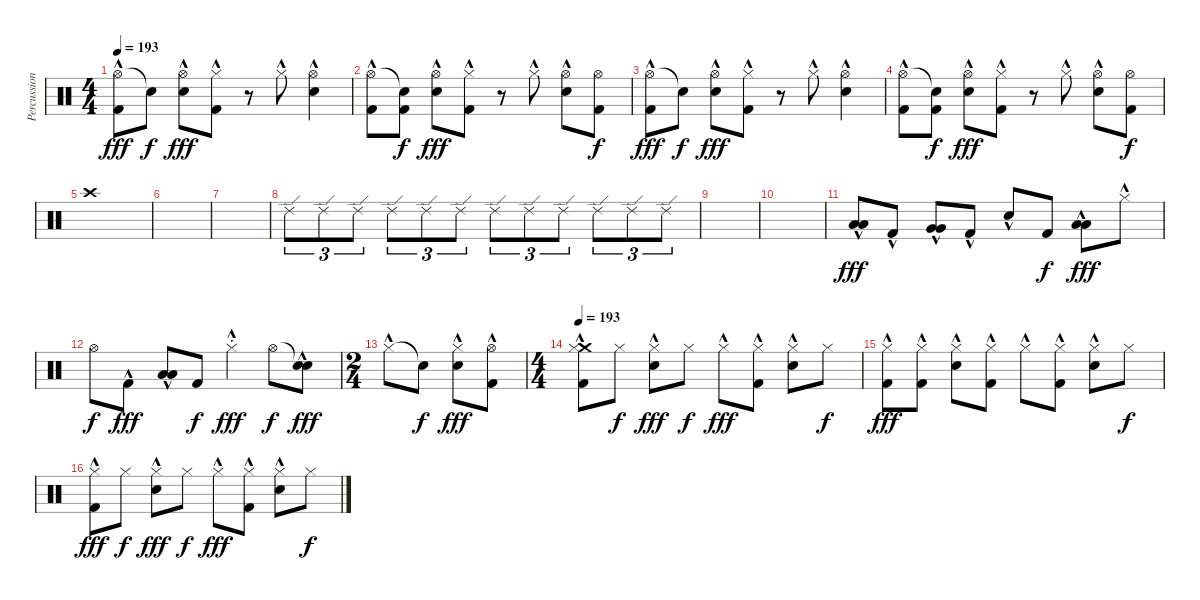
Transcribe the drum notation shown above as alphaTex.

\track ("Percussion" "Percussion") {instrument percussion}
\staff {score}
\articulation defaults
\ts (4 4)
\tempo 193
\clef neutral
\ks c
("Hi-Hat (open)"{hac} "Kick (hit) 2"{hac}).8{dy fff} "Snare (hit)"{t}.8{dy f} ("Hi-Hat (open)"{hac} "Electric Snare (hit)"{hac}).8{dy fff} ("Hi-Hat (closed)"{hac} "Kick (hit) 2"{hac}).8 r.8 "Hi-Hat (closed)"{hac}.8 ("Hi-Hat (open)"{hac} "Electric Snare (hit)"{hac}).4 |
("Hi-Hat (open)"{hac} "Kick (hit) 2"{hac}).8 ("Snare (hit)"{t} "Kick (hit) 2").8{dy f} ("Hi-Hat (open)"{hac} "Electric Snare (hit)"{hac}).8{dy fff} ("Hi-Hat (closed)"{hac} "Kick (hit) 2"{hac}).8 r.8 "Hi-Hat (closed)"{hac}.8 ("Hi-Hat (open)"{hac} "Electric Snare (hit)"{hac}).8 ("Hi-Hat (open)" "Kick (hit) 2").8{dy f} |
("Hi-Hat (open)"{hac} "Kick (hit) 2"{hac}).8{dy fff} "Snare (hit)"{t}.8{dy f} ("Hi-Hat (open)"{hac} "Electric Snare (hit)"{hac}).8{dy fff} ("Hi-Hat (closed)"{hac} "Kick (hit) 2"{hac}).8 r.8 "Hi-Hat (closed)"{hac}.8 ("Hi-Hat (open)"{hac} "Electric Snare (hit)"{hac}).4 |
("Hi-Hat (open)"{hac} "Kick (hit) 2"{hac}).8 ("Snare (hit)"{t} "Kick (hit) 2").8{dy f} ("Hi-Hat (open)"{hac} "Electric Snare (hit)"{hac}).8{dy fff} ("Hi-Hat (closed)"{hac} "Kick (hit) 2"{hac}).8 r.8 "Hi-Hat (closed)"{hac}.8 ("Hi-Hat (open)"{hac} "Electric Snare (hit)"{hac}).8 ("Hi-Hat (open)" "Kick (hit) 2").8{dy f} |
"Crash high (hit)".1 |
|
|
"Ride (edge) 2".8{tu (3 2) volume 16} "Ride (edge) 2".8{tu (3 2)} "Ride (edge) 2".8{tu (3 2)} "Ride (edge) 2".8{tu (3 2)} "Ride (edge) 2".8{tu (3 2)} "Ride (edge) 2".8{tu (3 2)} "Ride (edge) 2".8{tu (3 2)} "Ride (edge) 2".8{tu (3 2)} "Ride (edge) 2".8{tu (3 2)} "Ride (edge) 2".8{tu (3 2)} "Ride (edge) 2".8{tu (3 2)} "Ride (edge) 2".8{tu (3 2)} |
|
|
("Low Tom (hit)" "Low Tom (hit)"{hac}).8{bd 480 dy fff} "Kick (hit) 2"{hac}.8 ("Very Low Tom (hit)" "Very Low Tom (hit)"{hac}).8{bd 480} "Kick (hit) 2"{hac}.8 "Electric Snare (hit)"{hac}.8 "Kick (hit) 2".8{dy f} ("Low Floor Tom (hit)" "Low Floor Tom (hit)"{hac}).8{bd 480 dy fff} "Hi-Hat (closed)"{hac}.8 |
"Hi-Hat (open)".8{dy f} "Kick (hit) 2"{hac}.8{dy fff} ("Low Floor Tom (hit)" "Low Floor Tom (hit)"{hac}).8{bd 480} "Kick (hit) 2".8{dy f} "Hi-Hat (closed)"{hac st}.4{dy fff} "Hi-Hat (open)".8{dy f} ("Snare (hit)"{t} "Electric Snare (hit)"{hac}).8{dy fff} |
\ts (2 4)
"Hi-Hat (closed)"{hac}.8 "Snare (hit)"{t}.8{dy f} ("Hi-Hat (closed)"{hac} "Electric Snare (hit)"{hac}).8{dy fff} ("Hi-Hat (open)"{hac} "Kick (hit) 2").8 |
\ts (4 4)
\tempo 193
("Crash medium (hit)"{hac} "Hi-Hat (closed)"{hac} "Kick (hit) 2"{hac}).8 "Hi-Hat (closed)".8{dy f} ("Hi-Hat (closed)"{hac} "Electric Snare (hit)"{hac}).8{dy fff} "Hi-Hat (closed)".8{dy f} "Hi-Hat (closed)"{hac}.8{dy fff} ("Hi-Hat (closed)" "Kick (hit) 2"{hac}).8 ("Hi-Hat (closed)"{hac} "Electric Snare (hit)"{hac}).8 "Hi-Hat (closed)".8{dy f} |
("Hi-Hat (closed)"{hac} "Kick (hit) 2"{hac}).8{dy fff} ("Hi-Hat (closed)" "Kick (hit) 2"{hac}).8 ("Hi-Hat (closed)"{hac} "Electric Snare (hit)"{hac}).8 ("Hi-Hat (closed)" "Kick (hit) 2"{hac}).8 "Hi-Hat (closed)"{hac}.8 ("Hi-Hat (closed)" "Kick (hit) 2"{hac}).8 ("Hi-Hat (closed)"{hac} "Electric Snare (hit)"{hac}).8 "Hi-Hat (closed)".8{dy f} |
("Hi-Hat (closed)"{hac} "Kick (hit) 2"{hac}).8{dy fff} "Hi-Hat (closed)".8{dy f} ("Hi-Hat (closed)"{hac} "Electric Snare (hit)"{hac}).8{dy fff} "Hi-Hat (closed)".8{dy f} "Hi-Hat (closed)"{hac}.8{dy fff} ("Hi-Hat (closed)" "Kick (hit) 2"{hac}).8 ("Hi-Hat (closed)"{hac} "Electric Snare (hit)"{hac}).8 "Hi-Hat (closed)".8{dy f}
